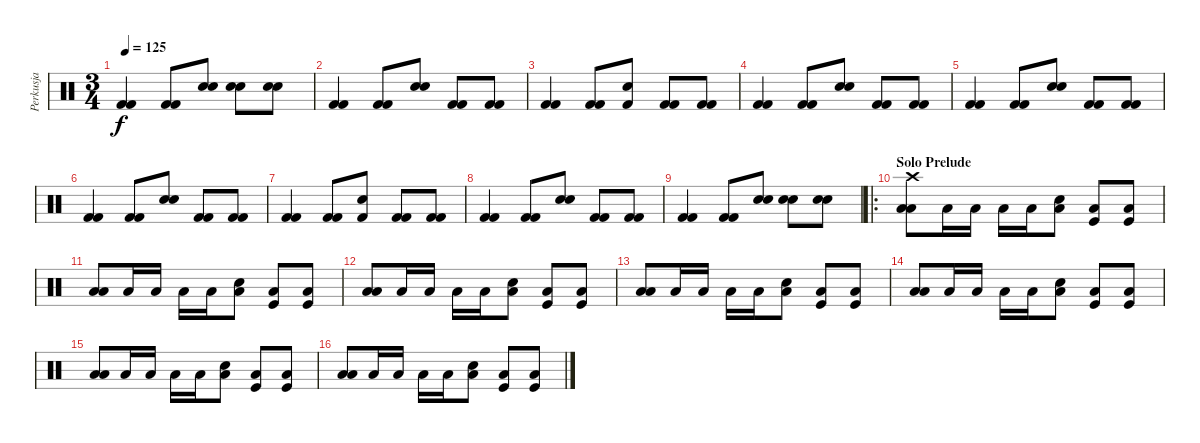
\track ("Perkusja" "Perkusja") {instrument percussion}
\staff {score}
\articulation defaults
\ts (3 4)
\tempo 125
\clef neutral
\ks c
("Kick (hit) 2" "Kick (hit) 2").4{dy f} ("Kick (hit) 2" "Kick (hit) 2").8 ("Snare (hit) 2" "Snare (hit) 2").8 ("Snare (hit) 2" "Snare (hit) 2").8 ("Snare (hit) 2" "Snare (hit) 2").8 |
("Kick (hit) 2" "Kick (hit) 2").4 ("Kick (hit) 2" "Kick (hit) 2").8 ("Snare (hit) 2" "Snare (hit) 2").8 ("Kick (hit) 2" "Kick (hit) 2").8 ("Kick (hit) 2" "Kick (hit) 2").8 |
("Kick (hit) 2" "Kick (hit) 2").4 ("Kick (hit) 2" "Kick (hit) 2").8 ("Kick (hit) 2" "Snare (hit) 2").8 ("Kick (hit) 2" "Kick (hit) 2").8 ("Kick (hit) 2" "Kick (hit) 2").8 |
("Kick (hit) 2" "Kick (hit) 2").4 ("Kick (hit) 2" "Kick (hit) 2").8 ("Snare (hit) 2" "Snare (hit) 2").8 ("Kick (hit) 2" "Kick (hit) 2").8 ("Kick (hit) 2" "Kick (hit) 2").8 |
("Kick (hit) 2" "Kick (hit) 2").4 ("Kick (hit) 2" "Kick (hit) 2").8 ("Snare (hit) 2" "Snare (hit) 2").8 ("Kick (hit) 2" "Kick (hit) 2").8 ("Kick (hit) 2" "Kick (hit) 2").8 |
("Kick (hit) 2" "Kick (hit) 2").4 ("Kick (hit) 2" "Kick (hit) 2").8 ("Snare (hit) 2" "Snare (hit) 2").8 ("Kick (hit) 2" "Kick (hit) 2").8 ("Kick (hit) 2" "Kick (hit) 2").8 |
("Kick (hit) 2" "Kick (hit) 2").4 ("Kick (hit) 2" "Kick (hit) 2").8 ("Kick (hit) 2" "Snare (hit) 2").8 ("Kick (hit) 2" "Kick (hit) 2").8 ("Kick (hit) 2" "Kick (hit) 2").8 |
("Kick (hit) 2" "Kick (hit) 2").4 ("Kick (hit) 2" "Kick (hit) 2").8 ("Snare (hit) 2" "Snare (hit) 2").8 ("Kick (hit) 2" "Kick (hit) 2").8 ("Kick (hit) 2" "Kick (hit) 2").8 |
("Kick (hit) 2" "Kick (hit) 2").4 ("Kick (hit) 2" "Kick (hit) 2").8 ("Snare (hit) 2" "Snare (hit) 2").8 ("Snare (hit) 2" "Snare (hit) 2").8 ("Snare (hit) 2" "Snare (hit) 2").8 |
\ro
\section ("" "Solo Prelude")
("Crash high (hit)" "Low Tom (hit)" "Low Floor Tom (hit)").8 "Low Floor Tom (hit)".16 "Low Floor Tom (hit)".16 "Low Floor Tom (hit)".16 "Low Floor Tom (hit)".16 ("Electric Snare (hit)" "Low Floor Tom (hit)").8 ("Low Floor Tom (hit)" "Kick (hit)").8 ("Low Floor Tom (hit)" "Kick (hit)").8 |
("Low Tom (hit)" "Low Floor Tom (hit)").8 "Low Floor Tom (hit)".16 "Low Floor Tom (hit)".16 "Low Floor Tom (hit)".16 "Low Floor Tom (hit)".16 ("Snare (hit) 2" "Low Floor Tom (hit)").8 ("Low Floor Tom (hit)" "Kick (hit)").8 ("Low Floor Tom (hit)" "Kick (hit)").8 |
("Low Tom (hit)" "Low Floor Tom (hit)").8 "Low Floor Tom (hit)".16 "Low Floor Tom (hit)".16 "Low Floor Tom (hit)".16 "Low Floor Tom (hit)".16 ("Snare (hit) 2" "Low Floor Tom (hit)").8 ("Low Floor Tom (hit)" "Kick (hit)").8 ("Low Floor Tom (hit)" "Kick (hit)").8 |
("Low Tom (hit)" "Low Floor Tom (hit)").8 "Low Floor Tom (hit)".16 "Low Floor Tom (hit)".16 "Low Floor Tom (hit)".16 "Low Floor Tom (hit)".16 ("Snare (hit) 2" "Low Floor Tom (hit)").8 ("Low Floor Tom (hit)" "Kick (hit)").8 ("Low Floor Tom (hit)" "Kick (hit)").8 |
("Low Tom (hit)" "Low Floor Tom (hit)").8 "Low Floor Tom (hit)".16 "Low Floor Tom (hit)".16 "Low Floor Tom (hit)".16 "Low Floor Tom (hit)".16 ("Snare (hit) 2" "Low Floor Tom (hit)").8 ("Low Floor Tom (hit)" "Kick (hit)").8 ("Low Floor Tom (hit)" "Kick (hit)").8 |
("Low Tom (hit)" "Low Floor Tom (hit)").8 "Low Floor Tom (hit)".16 "Low Floor Tom (hit)".16 "Low Floor Tom (hit)".16 "Low Floor Tom (hit)".16 ("Snare (hit) 2" "Low Floor Tom (hit)").8 ("Low Floor Tom (hit)" "Kick (hit)").8 ("Low Floor Tom (hit)" "Kick (hit)").8 |
("Low Tom (hit)" "Low Floor Tom (hit)").8 "Low Floor Tom (hit)".16 "Low Floor Tom (hit)".16 "Low Floor Tom (hit)".16 "Low Floor Tom (hit)".16 ("Snare (hit) 2" "Low Floor Tom (hit)").8 ("Low Floor Tom (hit)" "Kick (hit)").8 ("Low Floor Tom (hit)" "Kick (hit)").8
